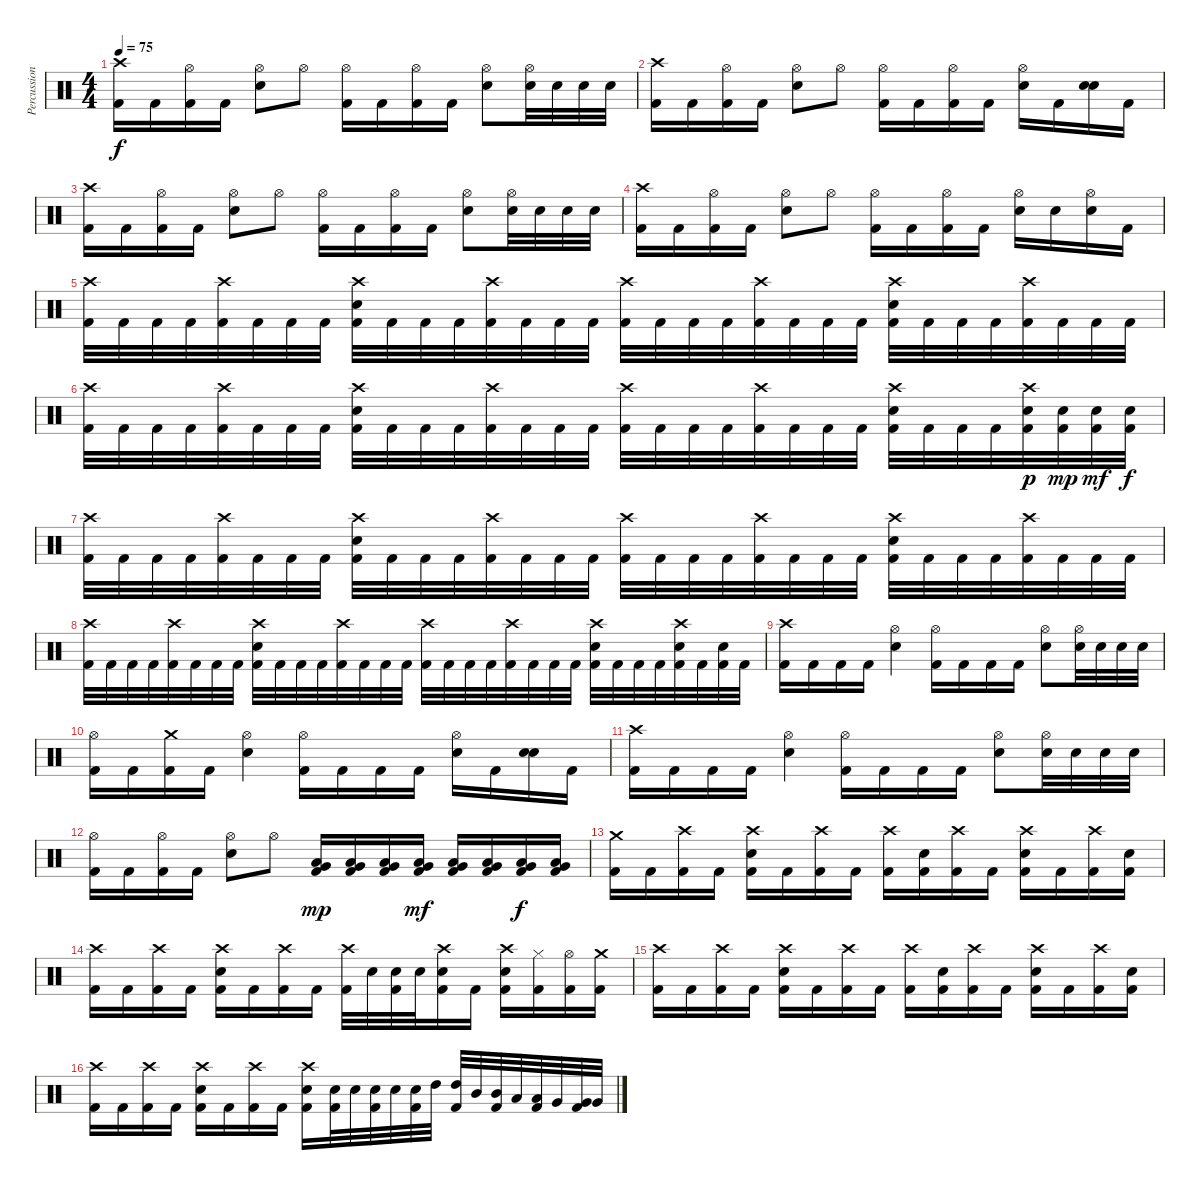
\track ("Percussion" "Percussion") {instrument percussion}
\staff {score}
\articulation defaults
\ts (4 4)
\tempo 75
\clef neutral
\ks c
("Crash high (hit)" "Kick (hit) 2").16{dy f} "Kick (hit) 2".16 ("Hi-Hat (open)" "Kick (hit) 2").16 "Kick (hit) 2".16 ("Hi-Hat (open)" "Electric Snare (hit)").8 "Hi-Hat (open)".8 ("Hi-Hat (open)" "Kick (hit) 2").16 "Kick (hit) 2".16 ("Hi-Hat (open)" "Kick (hit) 2").16 "Kick (hit) 2".16 ("Hi-Hat (open)" "Electric Snare (hit)").8 ("Hi-Hat (open)" "Electric Snare (hit)").32 "Electric Snare (hit)".32 "Electric Snare (hit)".32 "Electric Snare (hit)".32 |
("Crash high (hit)" "Kick (hit) 2").16 "Kick (hit) 2".16 ("Hi-Hat (open)" "Kick (hit) 2").16 "Kick (hit) 2".16 ("Hi-Hat (open)" "Electric Snare (hit)").8 "Hi-Hat (open)".8 ("Hi-Hat (open)" "Kick (hit) 2").16 "Kick (hit) 2".16 ("Hi-Hat (open)" "Kick (hit) 2").16 "Kick (hit) 2".16 ("Hi-Hat (open)" "Electric Snare (hit)").16 "Kick (hit) 2".16 ("Electric Snare (hit)" "Electric Snare (hit)").16{bu 480} "Kick (hit) 2".16 |
("Crash high (hit)" "Kick (hit) 2").16 "Kick (hit) 2".16 ("Hi-Hat (open)" "Kick (hit) 2").16 "Kick (hit) 2".16 ("Hi-Hat (open)" "Electric Snare (hit)").8 "Hi-Hat (open)".8 ("Hi-Hat (open)" "Kick (hit) 2").16 "Kick (hit) 2".16 ("Hi-Hat (open)" "Kick (hit) 2").16 "Kick (hit) 2".16 ("Hi-Hat (open)" "Electric Snare (hit)").8 ("Hi-Hat (open)" "Electric Snare (hit)").32 "Electric Snare (hit)".32 "Electric Snare (hit)".32 "Electric Snare (hit)".32 |
("Crash high (hit)" "Kick (hit) 2").16 "Kick (hit) 2".16 ("Hi-Hat (open)" "Kick (hit) 2").16 "Kick (hit) 2".16 ("Hi-Hat (open)" "Electric Snare (hit)").8 "Hi-Hat (open)".8 ("Hi-Hat (open)" "Kick (hit) 2").16 "Kick (hit) 2".16 ("Hi-Hat (open)" "Kick (hit) 2").16 "Kick (hit) 2".16 ("Hi-Hat (open)" "Electric Snare (hit)").16 "Electric Snare (hit)".16 ("Hi-Hat (open)" "Electric Snare (hit)").16 "Kick (hit) 2".16 |
("Crash high (hit)" "Kick (hit) 2").32 "Kick (hit) 2".32 "Kick (hit) 2".32 "Kick (hit) 2".32 ("Crash high (hit)" "Kick (hit) 2").32 "Kick (hit) 2".32 "Kick (hit) 2".32 "Kick (hit) 2".32 ("Crash high (hit)" "Electric Snare (hit)" "Kick (hit) 2").32 "Kick (hit) 2".32 "Kick (hit) 2".32 "Kick (hit) 2".32 ("Crash high (hit)" "Kick (hit) 2").32 "Kick (hit) 2".32 "Kick (hit) 2".32 "Kick (hit) 2".32 ("Crash high (hit)" "Kick (hit) 2").32 "Kick (hit) 2".32 "Kick (hit) 2".32 "Kick (hit) 2".32 ("Crash high (hit)" "Kick (hit) 2").32 "Kick (hit) 2".32 "Kick (hit) 2".32 "Kick (hit) 2".32 ("Crash high (hit)" "Electric Snare (hit)" "Kick (hit) 2").32 "Kick (hit) 2".32 "Kick (hit) 2".32 "Kick (hit) 2".32 ("Crash high (hit)" "Kick (hit) 2").32 "Kick (hit) 2".32 "Kick (hit) 2".32 "Kick (hit) 2".32 |
("Crash high (hit)" "Kick (hit) 2").32 "Kick (hit) 2".32 "Kick (hit) 2".32 "Kick (hit) 2".32 ("Crash high (hit)" "Kick (hit) 2").32 "Kick (hit) 2".32 "Kick (hit) 2".32 "Kick (hit) 2".32 ("Crash high (hit)" "Electric Snare (hit)" "Kick (hit) 2").32 "Kick (hit) 2".32 "Kick (hit) 2".32 "Kick (hit) 2".32 ("Crash high (hit)" "Kick (hit) 2").32 "Kick (hit) 2".32 "Kick (hit) 2".32 "Kick (hit) 2".32 ("Crash high (hit)" "Kick (hit) 2").32 "Kick (hit) 2".32 "Kick (hit) 2".32 "Kick (hit) 2".32 ("Crash high (hit)" "Kick (hit) 2").32 "Kick (hit) 2".32 "Kick (hit) 2".32 "Kick (hit) 2".32 ("Crash high (hit)" "Electric Snare (hit)" "Kick (hit) 2").32 "Kick (hit) 2".32 "Kick (hit) 2".32 "Kick (hit) 2".32 ("Crash high (hit)" "Electric Snare (hit)" "Kick (hit) 2").32{dy p} ("Electric Snare (hit)" "Kick (hit) 2").32{dy mp} ("Electric Snare (hit)" "Kick (hit) 2").32{dy mf} ("Electric Snare (hit)" "Kick (hit) 2").32{dy f} |
("Crash high (hit)" "Kick (hit) 2").32 "Kick (hit) 2".32 "Kick (hit) 2".32 "Kick (hit) 2".32 ("Crash high (hit)" "Kick (hit) 2").32 "Kick (hit) 2".32 "Kick (hit) 2".32 "Kick (hit) 2".32 ("Crash high (hit)" "Electric Snare (hit)" "Kick (hit) 2").32 "Kick (hit) 2".32 "Kick (hit) 2".32 "Kick (hit) 2".32 ("Crash high (hit)" "Kick (hit) 2").32 "Kick (hit) 2".32 "Kick (hit) 2".32 "Kick (hit) 2".32 ("Crash high (hit)" "Kick (hit) 2").32 "Kick (hit) 2".32 "Kick (hit) 2".32 "Kick (hit) 2".32 ("Crash high (hit)" "Kick (hit) 2").32 "Kick (hit) 2".32 "Kick (hit) 2".32 "Kick (hit) 2".32 ("Crash high (hit)" "Electric Snare (hit)" "Kick (hit) 2").32 "Kick (hit) 2".32 "Kick (hit) 2".32 "Kick (hit) 2".32 ("Crash high (hit)" "Kick (hit) 2").32 "Kick (hit) 2".32 "Kick (hit) 2".32 "Kick (hit) 2".32 |
("Crash high (hit)" "Kick (hit) 2").32 "Kick (hit) 2".32 "Kick (hit) 2".32 "Kick (hit) 2".32 ("Crash high (hit)" "Kick (hit) 2").32 "Kick (hit) 2".32 "Kick (hit) 2".32 "Kick (hit) 2".32 ("Crash high (hit)" "Electric Snare (hit)" "Kick (hit) 2").32 "Kick (hit) 2".32 "Kick (hit) 2".32 "Kick (hit) 2".32 ("Crash high (hit)" "Kick (hit) 2").32 "Kick (hit) 2".32 "Kick (hit) 2".32 "Kick (hit) 2".32 ("Crash high (hit)" "Kick (hit) 2").32 "Kick (hit) 2".32 "Kick (hit) 2".32 "Kick (hit) 2".32 ("Crash high (hit)" "Kick (hit) 2").32 "Kick (hit) 2".32 "Kick (hit) 2".32 "Kick (hit) 2".32 ("Crash high (hit)" "Electric Snare (hit)" "Kick (hit) 2").32 "Kick (hit) 2".32 "Kick (hit) 2".32 "Kick (hit) 2".32 ("Crash high (hit)" "Electric Snare (hit)" "Kick (hit) 2").32 "Kick (hit) 2".32 ("Electric Snare (hit)" "Kick (hit) 2").32 "Kick (hit) 2".32 |
("Crash high (hit)" "Kick (hit) 2").16 "Kick (hit) 2".16 "Kick (hit) 2".16 "Kick (hit) 2".16 ("Hi-Hat (open)" "Electric Snare (hit)").4 ("Hi-Hat (open)" "Kick (hit) 2").16 "Kick (hit) 2".16 "Kick (hit) 2".16 "Kick (hit) 2".16 ("Hi-Hat (open)" "Electric Snare (hit)").8 ("Hi-Hat (open)" "Electric Snare (hit)").32 "Electric Snare (hit)".32 "Electric Snare (hit)".32 "Electric Snare (hit)".32 |
("Hi-Hat (open)" "Kick (hit) 2").16 "Kick (hit) 2".16 ("Crash medium (hit)" "Kick (hit) 2").16 "Kick (hit) 2".16 ("Hi-Hat (open)" "Electric Snare (hit)").4 ("Hi-Hat (open)" "Kick (hit) 2").16 "Kick (hit) 2".16 "Kick (hit) 2".16 "Kick (hit) 2".16 ("Hi-Hat (open)" "Electric Snare (hit)").16 "Kick (hit) 2".16 ("Electric Snare (hit)" "Electric Snare (hit)").16{bu 480} "Kick (hit) 2".16 |
("Crash high (hit)" "Kick (hit) 2").16 "Kick (hit) 2".16 "Kick (hit) 2".16 "Kick (hit) 2".16 ("Hi-Hat (open)" "Electric Snare (hit)").4 ("Hi-Hat (open)" "Kick (hit) 2").16 "Kick (hit) 2".16 "Kick (hit) 2".16 "Kick (hit) 2".16 ("Hi-Hat (open)" "Electric Snare (hit)").8 ("Hi-Hat (open)" "Electric Snare (hit)").32 "Electric Snare (hit)".32 "Electric Snare (hit)".32 "Electric Snare (hit)".32 |
("Hi-Hat (open)" "Kick (hit) 2").16 "Kick (hit) 2".16 ("Hi-Hat (open)" "Kick (hit) 2").16 "Kick (hit) 2".16 ("Hi-Hat (open)" "Electric Snare (hit)").8 "Hi-Hat (open)".8 ("Low Tom (hit)" "Very Low Tom (hit)" "Kick (hit) 2").16{dy mp} ("Low Tom (hit)" "Very Low Tom (hit)" "Kick (hit) 2").16 ("Low Tom (hit)" "Very Low Tom (hit)" "Kick (hit) 2").16 ("Low Tom (hit)" "Very Low Tom (hit)" "Kick (hit) 2").16{dy mf} ("Low Tom (hit)" "Very Low Tom (hit)" "Kick (hit) 2").16 ("Low Tom (hit)" "Very Low Tom (hit)" "Kick (hit) 2").16 ("Low Tom (hit)" "Very Low Tom (hit)" "Kick (hit) 2").16{dy f} ("Low Tom (hit)" "Very Low Tom (hit)" "Kick (hit) 2").16 |
("Crash medium (hit)" "Kick (hit) 2").16 "Kick (hit) 2".16 ("Crash high (hit)" "Kick (hit) 2").16 "Kick (hit) 2".16 ("Crash high (hit)" "Electric Snare (hit)" "Kick (hit) 2").16 "Kick (hit) 2".16 ("Crash high (hit)" "Kick (hit) 2").16 "Kick (hit) 2".16 ("Crash high (hit)" "Kick (hit) 2").16 ("Electric Snare (hit)" "Kick (hit) 2").16 ("Crash high (hit)" "Kick (hit) 2").16 "Kick (hit) 2".16 ("Crash high (hit)" "Electric Snare (hit)" "Kick (hit) 2").16 "Kick (hit) 2".16 ("Crash high (hit)" "Kick (hit) 2").16 ("Electric Snare (hit)" "Kick (hit) 2").16 |
("Crash high (hit)" "Kick (hit) 2").16 "Kick (hit) 2".16 ("Crash high (hit)" "Kick (hit) 2").16 "Kick (hit) 2".16 ("Crash high (hit)" "Electric Snare (hit)" "Kick (hit) 2").16 "Kick (hit) 2".16 ("Crash high (hit)" "Kick (hit) 2").16 "Kick (hit) 2".16 ("Crash high (hit)" "Kick (hit) 2").32 "Electric Snare (hit)".32 ("Electric Snare (hit)" "Kick (hit) 2").32 "Electric Snare (hit)".32 ("Crash high (hit)" "Electric Snare (hit)" "Kick (hit) 2").16 "Kick (hit) 2".16 ("Crash high (hit)" "Electric Snare (hit)" "Kick (hit) 2").16 ("Hi-Hat (closed)" "Kick (hit) 2").16 ("Hi-Hat (open)" "Kick (hit) 2").16 ("Crash medium (hit)" "Kick (hit) 2").16 |
("Crash high (hit)" "Kick (hit) 2").16 "Kick (hit) 2".16 ("Crash high (hit)" "Kick (hit) 2").16 "Kick (hit) 2".16 ("Crash high (hit)" "Electric Snare (hit)" "Kick (hit) 2").16 "Kick (hit) 2".16 ("Crash high (hit)" "Kick (hit) 2").16 "Kick (hit) 2".16 ("Crash high (hit)" "Kick (hit) 2").16 ("Electric Snare (hit)" "Kick (hit) 2").16 ("Crash high (hit)" "Kick (hit) 2").16 "Kick (hit) 2".16 ("Crash high (hit)" "Electric Snare (hit)" "Kick (hit) 2").16 "Kick (hit) 2".16 ("Crash high (hit)" "Kick (hit) 2").16 ("Electric Snare (hit)" "Kick (hit) 2").16 |
("Crash high (hit)" "Kick (hit) 2").16 "Kick (hit) 2".16 ("Crash high (hit)" "Kick (hit) 2").16 "Kick (hit) 2".16 ("Crash high (hit)" "Electric Snare (hit)" "Kick (hit) 2").16 "Kick (hit) 2".16 ("Crash high (hit)" "Kick (hit) 2").16 "Kick (hit) 2".16 ("Crash high (hit)" "Electric Snare (hit)" "Kick (hit) 2").16 ("Electric Snare (hit)" "Kick (hit) 2").32 "Electric Snare (hit)".32 ("Electric Snare (hit)" "Kick (hit) 2").32 "Electric Snare (hit)".32 ("Electric Snare (hit)" "Kick (hit) 2").32 "High Tom (hit)".32 ("High Tom (hit)" "Kick (hit) 2").32 "Mid Tom (hit)".32 ("Mid Tom (hit)" "Kick (hit) 2").32 "Low Tom (hit)".32 ("Low Tom (hit)" "Kick (hit) 2").32 "Very Low Tom (hit)".32 ("Very Low Tom (hit)" "Kick (hit) 2").32 "Very Low Tom (hit)".32
